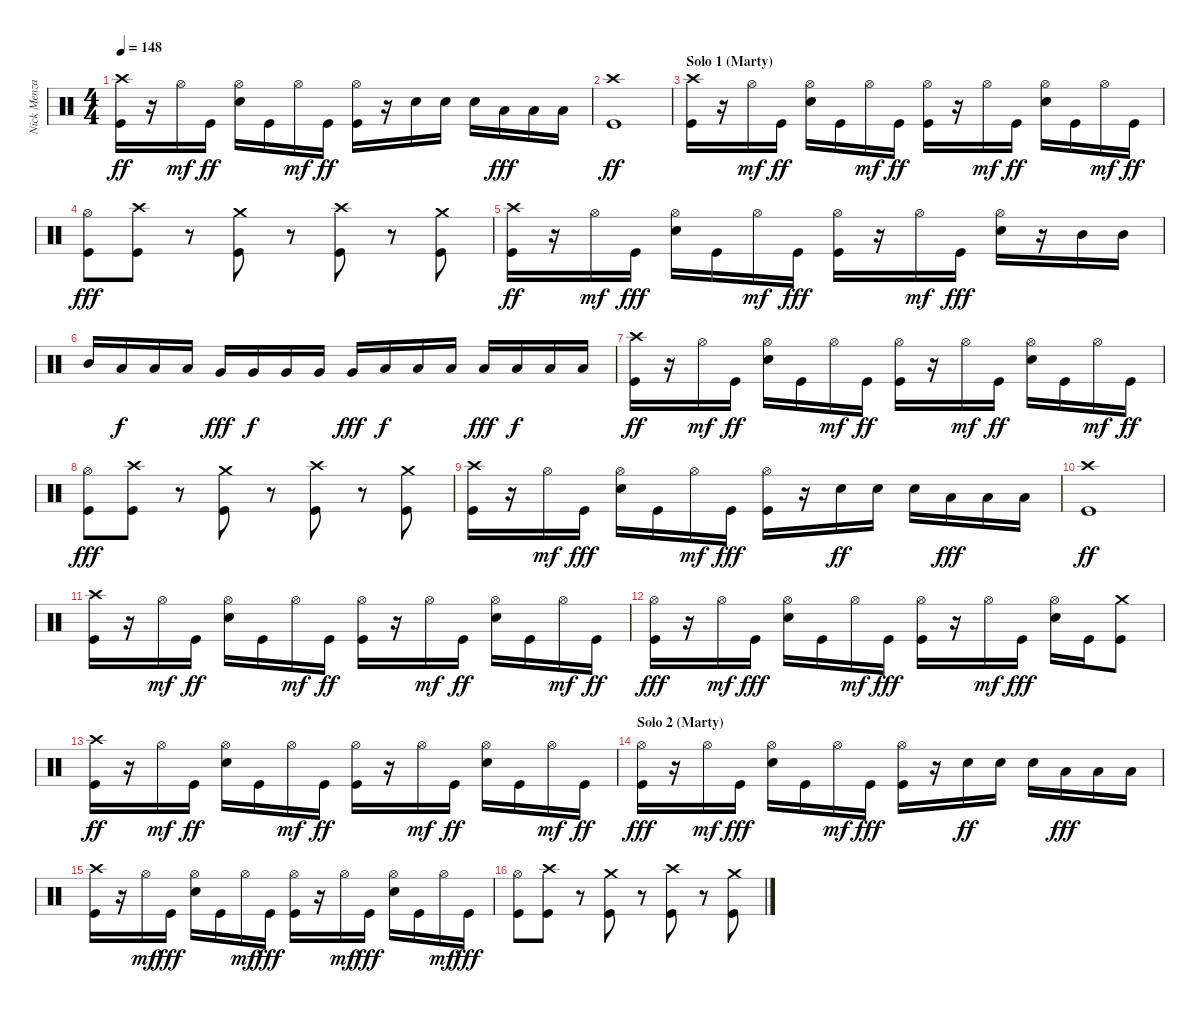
\track ("Nick Menza" "Nick Menza") {instrument percussion}
\staff {score}
\articulation defaults
\ts (4 4)
\tempo 148
\clef neutral
\ks c
("Kick (hit)" "Crash high (hit)").16{dy ff} r.16 "Hi-Hat (open)".16{dy mf} "Kick (hit)".16{dy ff} ("Snare (hit) 2" "Hi-Hat (open)").16 "Kick (hit)".16 "Hi-Hat (open)".16{dy mf} "Kick (hit)".16{dy ff} ("Kick (hit)" "Hi-Hat (open)").16 r.16 "Snare (hit) 2".16 "Snare (hit) 2".16 "Snare (hit) 2".16 "Low Tom (hit)".16{dy fff} "Low Tom (hit)".16 "Low Tom (hit)".16 |
("Kick (hit)" "Crash high (hit)").1{dy ff} |
\section ("" "Solo 1 (Marty)")
("Kick (hit)" "Crash high (hit)").16 r.16 "Hi-Hat (open)".16{dy mf} "Kick (hit)".16{dy ff} ("Snare (hit) 2" "Hi-Hat (open)").16 "Kick (hit)".16 "Hi-Hat (open)".16{dy mf} "Kick (hit)".16{dy ff} ("Kick (hit)" "Hi-Hat (open)").16 r.16 "Hi-Hat (open)".16{dy mf} "Kick (hit)".16{dy ff} ("Snare (hit) 2" "Hi-Hat (open)").16 "Kick (hit)".16 "Hi-Hat (open)".16{dy mf} "Kick (hit)".16{dy ff} |
("Kick (hit)" "Hi-Hat (open)").8{dy fff} ("Kick (hit)" "Crash high (hit)").8 r.8 ("Kick (hit)" "Crash medium (hit)").8 r.8 ("Kick (hit)" "Crash high (hit)").8 r.8 ("Kick (hit)" "Crash medium (hit)").8 |
("Kick (hit)" "Crash high (hit)").16{dy ff} r.16 "Hi-Hat (open)".16{dy mf} "Kick (hit)".16{dy fff} ("Snare (hit) 2" "Hi-Hat (open)").16 "Kick (hit)".16 "Hi-Hat (open)".16{dy mf} "Kick (hit)".16{dy fff} ("Kick (hit)" "Hi-Hat (open)").16 r.16 "Hi-Hat (open)".16{dy mf} "Kick (hit)".16{dy fff} ("Snare (hit) 2" "Hi-Hat (open)").16 r.16 "Mid Tom (hit)".16 "Mid Tom (hit)".16 |
"Mid Tom (hit)".16 "Low Tom (hit)".16{dy f} "Low Tom (hit)".16 "Low Tom (hit)".16 "Very Low Tom (hit)".16{dy fff} "Very Low Tom (hit)".16{dy f} "Very Low Tom (hit)".16 "Very Low Tom (hit)".16 "Very Low Tom (hit)".16{dy fff} "Low Floor Tom (hit)".16{dy f} "Low Floor Tom (hit)".16 "Low Floor Tom (hit)".16 "Low Floor Tom (hit)".16{dy fff} "Low Floor Tom (hit)".16{dy f} "Low Floor Tom (hit)".16 "Low Floor Tom (hit)".16 |
("Kick (hit)" "Crash high (hit)").16{dy ff} r.16 "Hi-Hat (open)".16{dy mf} "Kick (hit)".16{dy ff} ("Snare (hit) 2" "Hi-Hat (open)").16 "Kick (hit)".16 "Hi-Hat (open)".16{dy mf} "Kick (hit)".16{dy ff} ("Kick (hit)" "Hi-Hat (open)").16 r.16 "Hi-Hat (open)".16{dy mf} "Kick (hit)".16{dy ff} ("Snare (hit) 2" "Hi-Hat (open)").16 "Kick (hit)".16 "Hi-Hat (open)".16{dy mf} "Kick (hit)".16{dy ff} |
("Kick (hit)" "Hi-Hat (open)").8{dy fff} ("Kick (hit)" "Crash high (hit)").8 r.8 ("Kick (hit)" "Crash medium (hit)").8 r.8 ("Kick (hit)" "Crash high (hit)").8 r.8 ("Kick (hit)" "Crash medium (hit)").8 |
("Kick (hit)" "Crash high (hit)").16 r.16 "Hi-Hat (open)".16{dy mf} "Kick (hit)".16{dy fff} ("Snare (hit) 2" "Hi-Hat (open)").16 "Kick (hit)".16 "Hi-Hat (open)".16{dy mf} "Kick (hit)".16{dy fff} ("Kick (hit)" "Hi-Hat (open)").16 r.16 "Snare (hit) 2".16{dy ff} "Snare (hit) 2".16 "Snare (hit) 2".16 "Low Tom (hit)".16{dy fff} "Low Tom (hit)".16 "Low Tom (hit)".16 |
("Kick (hit)" "Crash high (hit)").1{dy ff} |
("Kick (hit)" "Crash high (hit)").16 r.16 "Hi-Hat (open)".16{dy mf} "Kick (hit)".16{dy ff} ("Snare (hit) 2" "Hi-Hat (open)").16 "Kick (hit)".16 "Hi-Hat (open)".16{dy mf} "Kick (hit)".16{dy ff} ("Kick (hit)" "Hi-Hat (open)").16 r.16 "Hi-Hat (open)".16{dy mf} "Kick (hit)".16{dy ff} ("Snare (hit) 2" "Hi-Hat (open)").16 "Kick (hit)".16 "Hi-Hat (open)".16{dy mf} "Kick (hit)".16{dy ff} |
("Kick (hit)" "Hi-Hat (open)").16{dy fff} r.16 "Hi-Hat (open)".16{dy mf} "Kick (hit)".16{dy fff} ("Snare (hit) 2" "Hi-Hat (open)").16 "Kick (hit)".16 "Hi-Hat (open)".16{dy mf} "Kick (hit)".16{dy fff} ("Kick (hit)" "Hi-Hat (open)").16 r.16 "Hi-Hat (open)".16{dy mf} "Kick (hit)".16{dy fff} ("Snare (hit) 2" "Hi-Hat (open)").16 "Kick (hit)".16 ("Kick (hit)" "Crash medium (hit)").8 |
("Kick (hit)" "Crash high (hit)").16{dy ff} r.16 "Hi-Hat (open)".16{dy mf} "Kick (hit)".16{dy ff} ("Snare (hit) 2" "Hi-Hat (open)").16 "Kick (hit)".16 "Hi-Hat (open)".16{dy mf} "Kick (hit)".16{dy ff} ("Kick (hit)" "Hi-Hat (open)").16 r.16 "Hi-Hat (open)".16{dy mf} "Kick (hit)".16{dy ff} ("Snare (hit) 2" "Hi-Hat (open)").16 "Kick (hit)".16 "Hi-Hat (open)".16{dy mf} "Kick (hit)".16{dy ff} |
\section ("" "Solo 2 (Marty)")
("Kick (hit)" "Hi-Hat (open)").16{dy fff} r.16 "Hi-Hat (open)".16{dy mf} "Kick (hit)".16{dy fff} ("Snare (hit) 2" "Hi-Hat (open)").16 "Kick (hit)".16 "Hi-Hat (open)".16{dy mf} "Kick (hit)".16{dy fff} ("Kick (hit)" "Hi-Hat (open)").16 r.16 "Snare (hit) 2".16{dy ff} "Snare (hit) 2".16 "Snare (hit) 2".16 "Low Tom (hit)".16{dy fff} "Low Tom (hit)".16 "Low Tom (hit)".16 |
("Kick (hit)" "Crash high (hit)").16 r.16 "Hi-Hat (open)".16{dy mf} "Kick (hit)".16{dy fff} ("Snare (hit) 2" "Hi-Hat (open)").16 "Kick (hit)".16 "Hi-Hat (open)".16{dy mf} "Kick (hit)".16{dy fff} ("Kick (hit)" "Hi-Hat (open)").16 r.16 "Hi-Hat (open)".16{dy mf} "Kick (hit)".16{dy fff} ("Snare (hit) 2" "Hi-Hat (open)").16 "Kick (hit)".16 "Hi-Hat (open)".16{dy mf} "Kick (hit)".16{dy fff} |
("Kick (hit)" "Hi-Hat (open)").8 ("Kick (hit)" "Crash high (hit)").8 r.8 ("Kick (hit)" "Crash medium (hit)").8 r.8 ("Kick (hit)" "Crash high (hit)").8 r.8 ("Kick (hit)" "Crash medium (hit)").8
